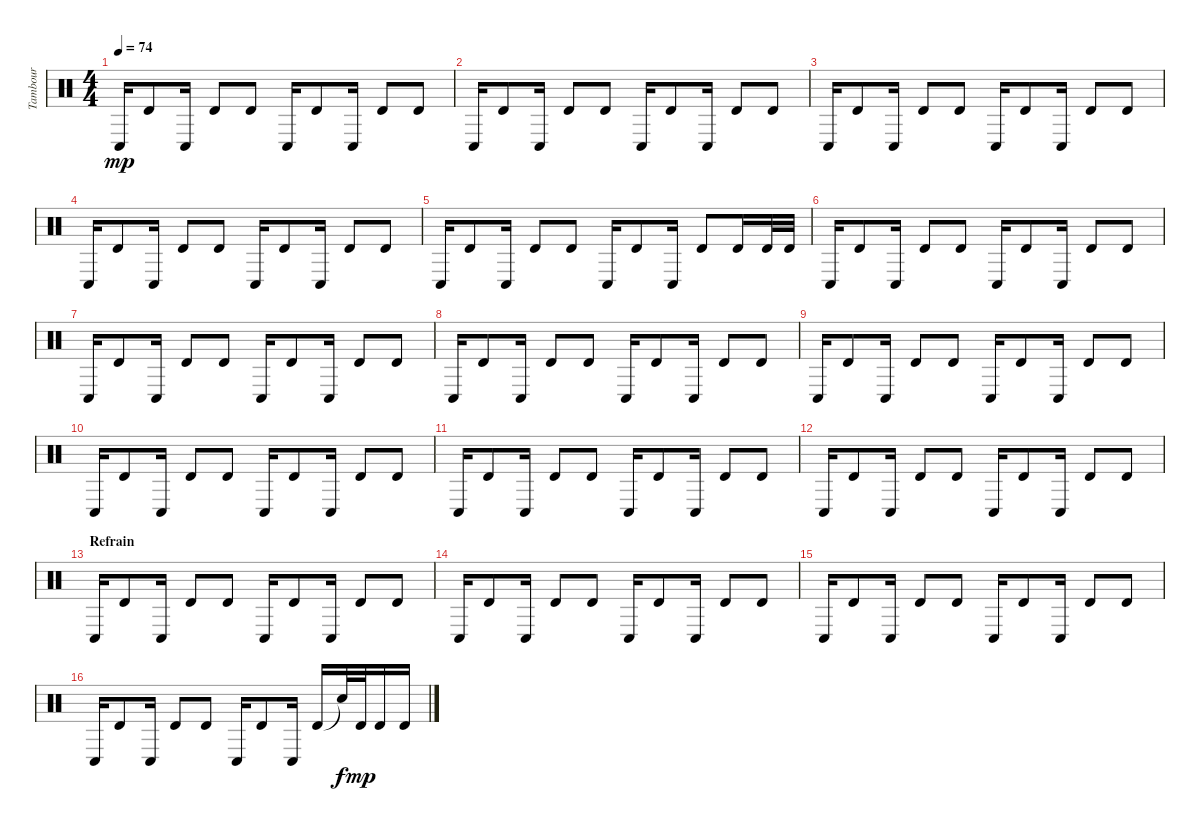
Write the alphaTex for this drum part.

\track ("Tambour" "Tambour") {instrument percussion}
\staff {score}
\articulation defaults
\ts (4 4)
\tempo 74
\clef neutral
\ks c "Conga low (hit)".16{dy mp} "Timbale high (hit)".8 "Conga low (hit)".16 "Timbale high (hit)".8 "Timbale high (hit)".8 "Conga low (hit)".16 "Timbale high (hit)".8 "Conga low (hit)".16 "Timbale high (hit)".8 "Timbale high (hit)".8
|
"Conga low (hit)".16 "Timbale high (hit)".8 "Conga low (hit)".16 "Timbale high (hit)".8 "Timbale high (hit)".8 "Conga low (hit)".16 "Timbale high (hit)".8 "Conga low (hit)".16 "Timbale high (hit)".8 "Timbale high (hit)".8 |
"Conga low (hit)".16 "Timbale high (hit)".8 "Conga low (hit)".16 "Timbale high (hit)".8 "Timbale high (hit)".8 "Conga low (hit)".16 "Timbale high (hit)".8 "Conga low (hit)".16 "Timbale high (hit)".8 "Timbale high (hit)".8 |
"Conga low (hit)".16 "Timbale high (hit)".8 "Conga low (hit)".16 "Timbale high (hit)".8 "Timbale high (hit)".8 "Conga low (hit)".16 "Timbale high (hit)".8 "Conga low (hit)".16 "Timbale high (hit)".8 "Timbale high (hit)".8 |
"Conga low (hit)".16 "Timbale high (hit)".8 "Conga low (hit)".16 "Timbale high (hit)".8 "Timbale high (hit)".8 "Conga low (hit)".16 "Timbale high (hit)".8 "Conga low (hit)".16 "Timbale high (hit)".8 "Timbale high (hit)".16 "Timbale high (hit)".32 "Timbale high (hit)".32 |
"Conga low (hit)".16 "Timbale high (hit)".8 "Conga low (hit)".16 "Timbale high (hit)".8 "Timbale high (hit)".8 "Conga low (hit)".16 "Timbale high (hit)".8 "Conga low (hit)".16 "Timbale high (hit)".8 "Timbale high (hit)".8 |
"Conga low (hit)".16 "Timbale high (hit)".8 "Conga low (hit)".16 "Timbale high (hit)".8 "Timbale high (hit)".8 "Conga low (hit)".16 "Timbale high (hit)".8 "Conga low (hit)".16 "Timbale high (hit)".8 "Timbale high (hit)".8 |
"Conga low (hit)".16 "Timbale high (hit)".8 "Conga low (hit)".16 "Timbale high (hit)".8 "Timbale high (hit)".8 "Conga low (hit)".16 "Timbale high (hit)".8 "Conga low (hit)".16 "Timbale high (hit)".8 "Timbale high (hit)".8 |
"Conga low (hit)".16 "Timbale high (hit)".8 "Conga low (hit)".16 "Timbale high (hit)".8 "Timbale high (hit)".8 "Conga low (hit)".16 "Timbale high (hit)".8 "Conga low (hit)".16 "Timbale high (hit)".8 "Timbale high (hit)".8 |
"Conga low (hit)".16 "Timbale high (hit)".8 "Conga low (hit)".16 "Timbale high (hit)".8 "Timbale high (hit)".8 "Conga low (hit)".16 "Timbale high (hit)".8 "Conga low (hit)".16 "Timbale high (hit)".8 "Timbale high (hit)".8 |
"Conga low (hit)".16 "Timbale high (hit)".8 "Conga low (hit)".16 "Timbale high (hit)".8 "Timbale high (hit)".8 "Conga low (hit)".16 "Timbale high (hit)".8 "Conga low (hit)".16 "Timbale high (hit)".8 "Timbale high (hit)".8 |
"Conga low (hit)".16 "Timbale high (hit)".8 "Conga low (hit)".16 "Timbale high (hit)".8 "Timbale high (hit)".8 "Conga low (hit)".16 "Timbale high (hit)".8 "Conga low (hit)".16 "Timbale high (hit)".8 "Timbale high (hit)".8 |
\section ("" "Refrain")
"Conga low (hit)".16 "Timbale high (hit)".8 "Conga low (hit)".16 "Timbale high (hit)".8 "Timbale high (hit)".8 "Conga low (hit)".16 "Timbale high (hit)".8 "Conga low (hit)".16 "Timbale high (hit)".8 "Timbale high (hit)".8 |
"Conga low (hit)".16 "Timbale high (hit)".8 "Conga low (hit)".16 "Timbale high (hit)".8 "Timbale high (hit)".8 "Conga low (hit)".16 "Timbale high (hit)".8 "Conga low (hit)".16 "Timbale high (hit)".8 "Timbale high (hit)".8 |
"Conga low (hit)".16 "Timbale high (hit)".8 "Conga low (hit)".16 "Timbale high (hit)".8 "Timbale high (hit)".8 "Conga low (hit)".16 "Timbale high (hit)".8 "Conga low (hit)".16 "Timbale high (hit)".8 "Timbale high (hit)".8 |
"Conga low (hit)".16 "Timbale high (hit)".8 "Conga low (hit)".16 "Timbale high (hit)".8 "Timbale high (hit)".8 "Conga low (hit)".16 "Timbale high (hit)".8 "Conga low (hit)".16 "Timbale high (hit)".16 "Snare (hit)"{t}.32{dy f} "Timbale high (hit)".32{dy mp} "Timbale high (hit)".16 "Timbale high (hit)".16
